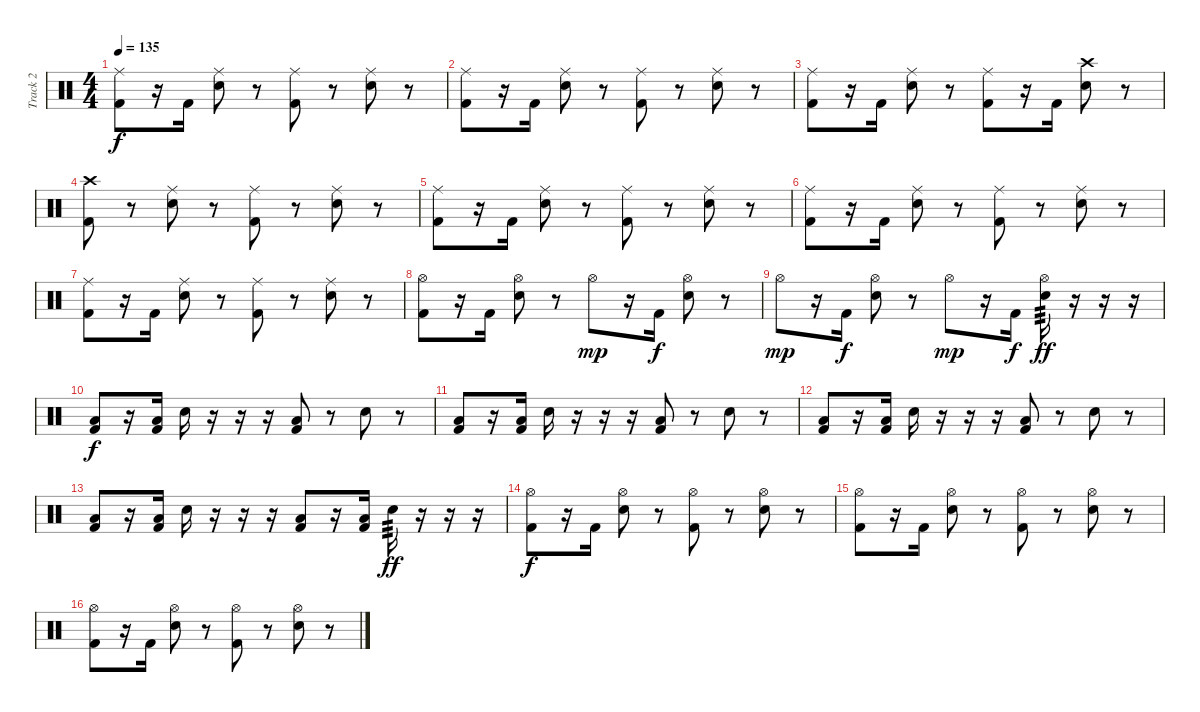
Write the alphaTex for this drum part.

\track ("Track 2" "Track 2") {instrument percussion}
\staff {score}
\articulation defaults
\ts (4 4)
\tempo 135
\clef neutral
\ks c
("Ride (middle)" "Kick (hit) 2").8{dy f} r.16 "Kick (hit) 2".16 ("Ride (middle)" "Electric Snare (hit)").8 r.8 ("Ride (middle)" "Kick (hit) 2").8 r.8 ("Ride (middle)" "Electric Snare (hit)").8 r.8 |
("Ride (middle)" "Kick (hit) 2").8 r.16 "Kick (hit) 2".16 ("Ride (middle)" "Electric Snare (hit)").8 r.8 ("Ride (middle)" "Kick (hit) 2").8 r.8 ("Ride (middle)" "Electric Snare (hit)").8 r.8 |
("Ride (middle)" "Kick (hit) 2").8 r.16 "Kick (hit) 2".16 ("Ride (middle)" "Electric Snare (hit)").8 r.8 ("Ride (middle)" "Kick (hit) 2").8 r.16 "Kick (hit) 2".16 ("Crash high (hit)" "Electric Snare (hit)").8 r.8 |
("Crash high (hit)" "Kick (hit) 2").8 r.8 ("Ride (middle)" "Electric Snare (hit)").8 r.8 ("Ride (middle)" "Kick (hit) 2").8 r.8 ("Ride (middle)" "Electric Snare (hit)").8 r.8 |
("Ride (middle)" "Kick (hit) 2").8 r.16 "Kick (hit) 2".16 ("Ride (middle)" "Electric Snare (hit)").8 r.8 ("Ride (middle)" "Kick (hit) 2").8 r.8 ("Ride (middle)" "Electric Snare (hit)").8 r.8 |
("Ride (middle)" "Kick (hit) 2").8 r.16 "Kick (hit) 2".16 ("Ride (middle)" "Electric Snare (hit)").8 r.8 ("Ride (middle)" "Kick (hit) 2").8 r.8 ("Ride (middle)" "Electric Snare (hit)").8 r.8 |
("Ride (middle)" "Kick (hit) 2").8 r.16 "Kick (hit) 2".16 ("Ride (middle)" "Electric Snare (hit)").8 r.8 ("Ride (middle)" "Kick (hit) 2").8 r.8 ("Ride (middle)" "Electric Snare (hit)").8 r.8 |
("Hi-Hat (open)" "Kick (hit) 2").8 r.16 "Kick (hit) 2".16 ("Hi-Hat (open)" "Electric Snare (hit)").8 r.8 "Hi-Hat (open)".8{dy mp} r.16 "Kick (hit) 2".16{dy f} ("Hi-Hat (open)" "Electric Snare (hit)").8 r.8 |
"Hi-Hat (open)".8{dy mp} r.16 "Kick (hit) 2".16{dy f} ("Hi-Hat (open)" "Electric Snare (hit)").8 r.8 "Hi-Hat (open)".8{dy mp} r.16 "Kick (hit) 2".16{dy f} ("Hi-Hat (open)" "Electric Snare (hit)").16{tp 3 dy ff} r.16 r.16 r.16 |
("Low Floor Tom (hit)" "Kick (hit) 2").8{dy f} r.16 ("Low Floor Tom (hit)" "Kick (hit) 2").16 "Electric Snare (hit)".16 r.16 r.16 r.16 ("Low Floor Tom (hit)" "Kick (hit) 2").8 r.8 "Electric Snare (hit)".8 r.8 |
("Low Floor Tom (hit)" "Kick (hit) 2").8 r.16 ("Low Floor Tom (hit)" "Kick (hit) 2").16 "Electric Snare (hit)".16 r.16 r.16 r.16 ("Low Floor Tom (hit)" "Kick (hit) 2").8 r.8 "Electric Snare (hit)".8 r.8 |
("Low Floor Tom (hit)" "Kick (hit) 2").8 r.16 ("Low Floor Tom (hit)" "Kick (hit) 2").16 "Electric Snare (hit)".16 r.16 r.16 r.16 ("Low Floor Tom (hit)" "Kick (hit) 2").8 r.8 "Electric Snare (hit)".8 r.8 |
("Low Floor Tom (hit)" "Kick (hit) 2").8 r.16 ("Low Floor Tom (hit)" "Kick (hit) 2").16 "Electric Snare (hit)".16 r.16 r.16 r.16 ("Low Floor Tom (hit)" "Kick (hit) 2").8 r.16 ("Low Floor Tom (hit)" "Kick (hit) 2").16 "Electric Snare (hit)".16{tp 3 dy ff} r.16 r.16 r.16 |
("Hi-Hat (open)" "Kick (hit) 2").8{dy f} r.16 "Kick (hit) 2".16 ("Hi-Hat (open)" "Electric Snare (hit)").8 r.8 ("Hi-Hat (open)" "Kick (hit) 2").8 r.8 ("Hi-Hat (open)" "Electric Snare (hit)").8 r.8 |
("Hi-Hat (open)" "Kick (hit) 2").8 r.16 "Kick (hit) 2".16 ("Hi-Hat (open)" "Electric Snare (hit)").8 r.8 ("Hi-Hat (open)" "Kick (hit) 2").8 r.8 ("Hi-Hat (open)" "Electric Snare (hit)").8 r.8 |
("Hi-Hat (open)" "Kick (hit) 2").8 r.16 "Kick (hit) 2".16 ("Hi-Hat (open)" "Electric Snare (hit)").8 r.8 ("Hi-Hat (open)" "Kick (hit) 2").8 r.8 ("Hi-Hat (open)" "Electric Snare (hit)").8 r.8
